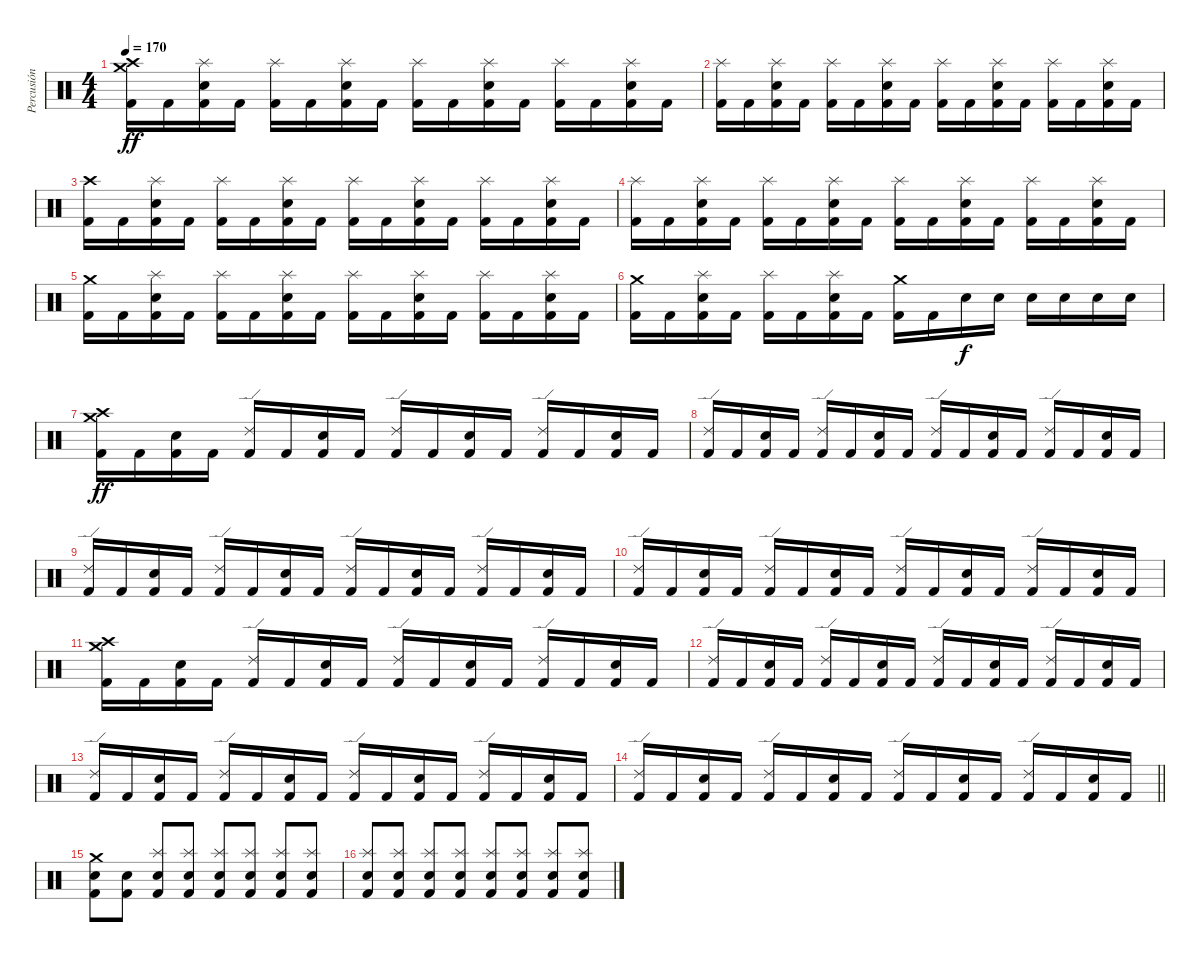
\track ("Percusión" "Percusión") {instrument percussion}
\staff {score}
\articulation defaults
\ts (4 4)
\tempo 170
\clef neutral
\ks c
("Crash medium (hit)" "Crash high (hit)" "Kick (hit) 2").16{dy ff} "Kick (hit) 2".16 ("Splash (hit)" "Snare (hit) 2" "Kick (hit) 2").16 "Kick (hit) 2".16 ("Splash (hit)" "Kick (hit) 2").16 "Kick (hit) 2".16 ("Splash (hit)" "Snare (hit) 2" "Kick (hit) 2").16 "Kick (hit) 2".16 ("Splash (hit)" "Kick (hit) 2").16 "Kick (hit) 2".16 ("Splash (hit)" "Snare (hit) 2" "Kick (hit) 2").16 "Kick (hit) 2".16 ("Splash (hit)" "Kick (hit) 2").16 "Kick (hit) 2".16 ("Splash (hit)" "Snare (hit) 2" "Kick (hit) 2").16 "Kick (hit) 2".16 |
("Splash (hit)" "Kick (hit) 2").16 "Kick (hit) 2".16 ("Splash (hit)" "Snare (hit) 2" "Kick (hit) 2").16 "Kick (hit) 2".16 ("Splash (hit)" "Kick (hit) 2").16 "Kick (hit) 2".16 ("Splash (hit)" "Snare (hit) 2" "Kick (hit) 2").16 "Kick (hit) 2".16 ("Splash (hit)" "Kick (hit) 2").16 "Kick (hit) 2".16 ("Splash (hit)" "Snare (hit) 2" "Kick (hit) 2").16 "Kick (hit) 2".16 ("Splash (hit)" "Kick (hit) 2").16 "Kick (hit) 2".16 ("Splash (hit)" "Snare (hit) 2" "Kick (hit) 2").16 "Kick (hit) 2".16 |
("Crash high (hit)" "Kick (hit) 2").16 "Kick (hit) 2".16 ("Splash (hit)" "Snare (hit) 2" "Kick (hit) 2").16 "Kick (hit) 2".16 ("Splash (hit)" "Kick (hit) 2").16 "Kick (hit) 2".16 ("Splash (hit)" "Snare (hit) 2" "Kick (hit) 2").16 "Kick (hit) 2".16 ("Splash (hit)" "Kick (hit) 2").16 "Kick (hit) 2".16 ("Splash (hit)" "Snare (hit) 2" "Kick (hit) 2").16 "Kick (hit) 2".16 ("Splash (hit)" "Kick (hit) 2").16 "Kick (hit) 2".16 ("Splash (hit)" "Snare (hit) 2" "Kick (hit) 2").16 "Kick (hit) 2".16 |
("Splash (hit)" "Kick (hit) 2").16 "Kick (hit) 2".16 ("Splash (hit)" "Snare (hit) 2" "Kick (hit) 2").16 "Kick (hit) 2".16 ("Splash (hit)" "Kick (hit) 2").16 "Kick (hit) 2".16 ("Splash (hit)" "Snare (hit) 2" "Kick (hit) 2").16 "Kick (hit) 2".16 ("Splash (hit)" "Kick (hit) 2").16 "Kick (hit) 2".16 ("Splash (hit)" "Snare (hit) 2" "Kick (hit) 2").16 "Kick (hit) 2".16 ("Splash (hit)" "Kick (hit) 2").16 "Kick (hit) 2".16 ("Splash (hit)" "Snare (hit) 2" "Kick (hit) 2").16 "Kick (hit) 2".16 |
("Crash medium (hit)" "Kick (hit) 2").16 "Kick (hit) 2".16 ("Splash (hit)" "Snare (hit) 2" "Kick (hit) 2").16 "Kick (hit) 2".16 ("Splash (hit)" "Kick (hit) 2").16 "Kick (hit) 2".16 ("Splash (hit)" "Snare (hit) 2" "Kick (hit) 2").16 "Kick (hit) 2".16 ("Splash (hit)" "Kick (hit) 2").16 "Kick (hit) 2".16 ("Splash (hit)" "Snare (hit) 2" "Kick (hit) 2").16 "Kick (hit) 2".16 ("Splash (hit)" "Kick (hit) 2").16 "Kick (hit) 2".16 ("Splash (hit)" "Snare (hit) 2" "Kick (hit) 2").16 "Kick (hit) 2".16 |
("Crash medium (hit)" "Kick (hit) 2").16 "Kick (hit) 2".16 ("Splash (hit)" "Snare (hit) 2" "Kick (hit) 2").16 "Kick (hit) 2".16 ("Splash (hit)" "Kick (hit) 2").16 "Kick (hit) 2".16 ("Splash (hit)" "Snare (hit) 2" "Kick (hit) 2").16 "Kick (hit) 2".16 ("Crash medium (hit)" "Kick (hit) 2").16 "Kick (hit) 2".16 "Snare (hit) 2".16{dy f} "Snare (hit) 2".16 "Snare (hit) 2".16 "Snare (hit) 2".16 "Snare (hit) 2".16 "Snare (hit) 2".16 |
("Crash medium (hit)" "Crash high (hit)" "Kick (hit) 2").16{dy ff} "Kick (hit) 2".16 ("Snare (hit) 2" "Kick (hit) 2").16 "Kick (hit) 2".16 ("Ride (edge) 2" "Kick (hit) 2").16 "Kick (hit) 2".16 ("Snare (hit) 2" "Kick (hit) 2").16 "Kick (hit) 2".16 ("Ride (edge) 2" "Kick (hit) 2").16 "Kick (hit) 2".16 ("Snare (hit) 2" "Kick (hit) 2").16 "Kick (hit) 2".16 ("Ride (edge) 2" "Kick (hit) 2").16 "Kick (hit) 2".16 ("Snare (hit) 2" "Kick (hit) 2").16 "Kick (hit) 2".16 |
("Ride (edge) 2" "Kick (hit) 2").16 "Kick (hit) 2".16 ("Snare (hit) 2" "Kick (hit) 2").16 "Kick (hit) 2".16 ("Ride (edge) 2" "Kick (hit) 2").16 "Kick (hit) 2".16 ("Snare (hit) 2" "Kick (hit) 2").16 "Kick (hit) 2".16 ("Ride (edge) 2" "Kick (hit) 2").16 "Kick (hit) 2".16 ("Snare (hit) 2" "Kick (hit) 2").16 "Kick (hit) 2".16 ("Ride (edge) 2" "Kick (hit) 2").16 "Kick (hit) 2".16 ("Snare (hit) 2" "Kick (hit) 2").16 "Kick (hit) 2".16 |
("Ride (edge) 2" "Kick (hit) 2").16 "Kick (hit) 2".16 ("Snare (hit) 2" "Kick (hit) 2").16 "Kick (hit) 2".16 ("Ride (edge) 2" "Kick (hit) 2").16 "Kick (hit) 2".16 ("Snare (hit) 2" "Kick (hit) 2").16 "Kick (hit) 2".16 ("Ride (edge) 2" "Kick (hit) 2").16 "Kick (hit) 2".16 ("Snare (hit) 2" "Kick (hit) 2").16 "Kick (hit) 2".16 ("Ride (edge) 2" "Kick (hit) 2").16 "Kick (hit) 2".16 ("Snare (hit) 2" "Kick (hit) 2").16 "Kick (hit) 2".16 |
("Ride (edge) 2" "Kick (hit) 2").16 "Kick (hit) 2".16 ("Snare (hit) 2" "Kick (hit) 2").16 "Kick (hit) 2".16 ("Ride (edge) 2" "Kick (hit) 2").16 "Kick (hit) 2".16 ("Snare (hit) 2" "Kick (hit) 2").16 "Kick (hit) 2".16 ("Ride (edge) 2" "Kick (hit) 2").16 "Kick (hit) 2".16 ("Snare (hit) 2" "Kick (hit) 2").16 "Kick (hit) 2".16 ("Ride (edge) 2" "Kick (hit) 2").16 "Kick (hit) 2".16 ("Snare (hit) 2" "Kick (hit) 2").16 "Kick (hit) 2".16 |
("Crash medium (hit)" "Crash high (hit)" "Kick (hit) 2").16 "Kick (hit) 2".16 ("Snare (hit) 2" "Kick (hit) 2").16 "Kick (hit) 2".16 ("Ride (edge) 2" "Kick (hit) 2").16 "Kick (hit) 2".16 ("Snare (hit) 2" "Kick (hit) 2").16 "Kick (hit) 2".16 ("Ride (edge) 2" "Kick (hit) 2").16 "Kick (hit) 2".16 ("Snare (hit) 2" "Kick (hit) 2").16 "Kick (hit) 2".16 ("Ride (edge) 2" "Kick (hit) 2").16 "Kick (hit) 2".16 ("Snare (hit) 2" "Kick (hit) 2").16 "Kick (hit) 2".16 |
("Ride (edge) 2" "Kick (hit) 2").16 "Kick (hit) 2".16 ("Snare (hit) 2" "Kick (hit) 2").16 "Kick (hit) 2".16 ("Ride (edge) 2" "Kick (hit) 2").16 "Kick (hit) 2".16 ("Snare (hit) 2" "Kick (hit) 2").16 "Kick (hit) 2".16 ("Ride (edge) 2" "Kick (hit) 2").16 "Kick (hit) 2".16 ("Snare (hit) 2" "Kick (hit) 2").16 "Kick (hit) 2".16 ("Ride (edge) 2" "Kick (hit) 2").16 "Kick (hit) 2".16 ("Snare (hit) 2" "Kick (hit) 2").16 "Kick (hit) 2".16 |
("Ride (edge) 2" "Kick (hit) 2").16 "Kick (hit) 2".16 ("Snare (hit) 2" "Kick (hit) 2").16 "Kick (hit) 2".16 ("Ride (edge) 2" "Kick (hit) 2").16 "Kick (hit) 2".16 ("Snare (hit) 2" "Kick (hit) 2").16 "Kick (hit) 2".16 ("Ride (edge) 2" "Kick (hit) 2").16 "Kick (hit) 2".16 ("Snare (hit) 2" "Kick (hit) 2").16 "Kick (hit) 2".16 ("Ride (edge) 2" "Kick (hit) 2").16 "Kick (hit) 2".16 ("Snare (hit) 2" "Kick (hit) 2").16 "Kick (hit) 2".16 |
\barLineRight lightlight
("Ride (edge) 2" "Kick (hit) 2").16 "Kick (hit) 2".16 ("Snare (hit) 2" "Kick (hit) 2").16 "Kick (hit) 2".16 ("Ride (edge) 2" "Kick (hit) 2").16 "Kick (hit) 2".16 ("Snare (hit) 2" "Kick (hit) 2").16 "Kick (hit) 2".16 ("Ride (edge) 2" "Kick (hit) 2").16 "Kick (hit) 2".16 ("Snare (hit) 2" "Kick (hit) 2").16 "Kick (hit) 2".16 ("Ride (edge) 2" "Kick (hit) 2").16 "Kick (hit) 2".16 ("Snare (hit) 2" "Kick (hit) 2").16 "Kick (hit) 2".16 |
("Crash medium (hit)" "Snare (hit) 2" "Kick (hit) 2").8 ("Snare (hit) 2" "Kick (hit) 2").8 ("Splash (hit)" "Snare (hit) 2" "Kick (hit) 2").8 ("Splash (hit)" "Snare (hit) 2" "Kick (hit) 2").8 ("Splash (hit)" "Snare (hit) 2" "Kick (hit) 2").8 ("Splash (hit)" "Snare (hit) 2" "Kick (hit) 2").8 ("Splash (hit)" "Snare (hit) 2" "Kick (hit) 2").8 ("Splash (hit)" "Snare (hit) 2" "Kick (hit) 2").8 |
("Splash (hit)" "Snare (hit) 2" "Kick (hit) 2").8 ("Splash (hit)" "Snare (hit) 2" "Kick (hit) 2").8 ("Splash (hit)" "Snare (hit) 2" "Kick (hit) 2").8 ("Splash (hit)" "Snare (hit) 2" "Kick (hit) 2").8 ("Splash (hit)" "Snare (hit) 2" "Kick (hit) 2").8 ("Splash (hit)" "Snare (hit) 2" "Kick (hit) 2").8 ("Splash (hit)" "Snare (hit) 2" "Kick (hit) 2").8 ("Splash (hit)" "Snare (hit) 2" "Kick (hit) 2").8
